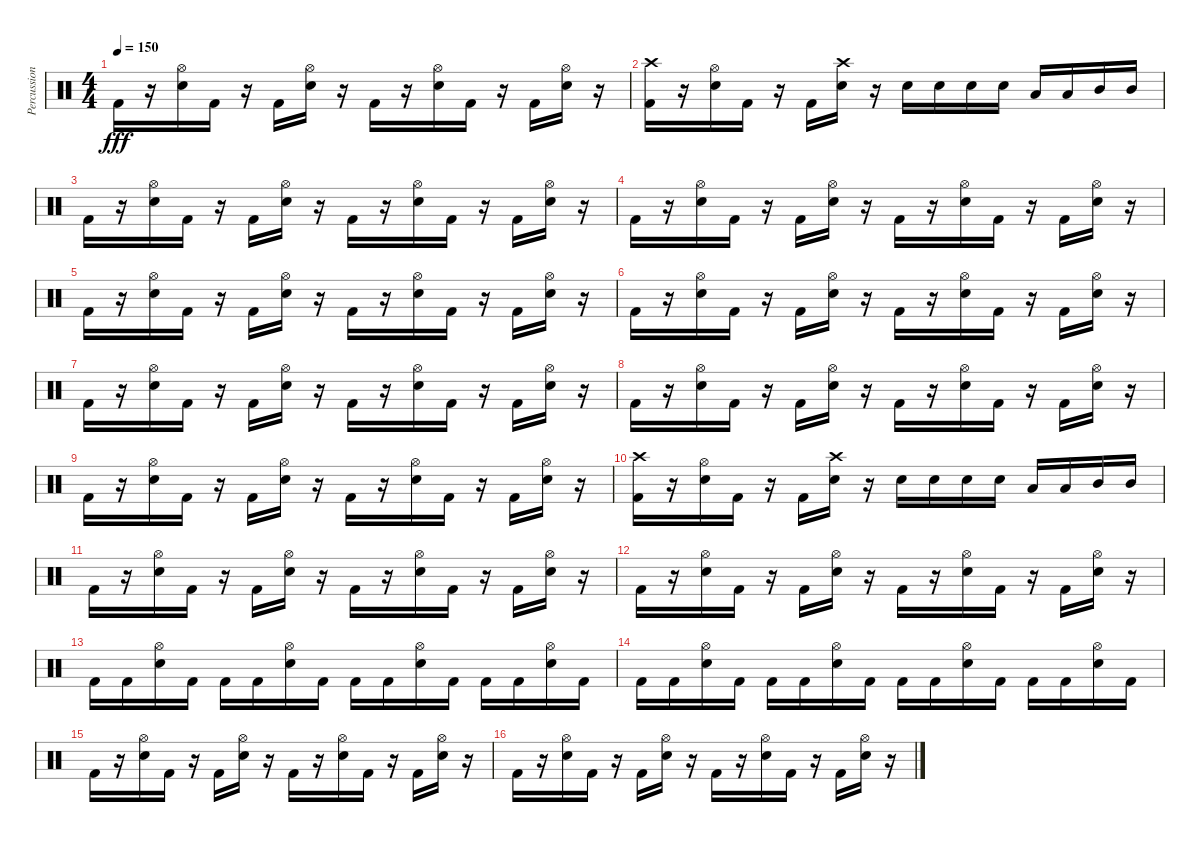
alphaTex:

\track ("Percussion" "Percussion") {instrument percussion}
\staff {score}
\articulation defaults
\ts (4 4)
\tempo 150
\clef neutral
\ks c "Kick (hit) 2".16{dy fff}
r.16 ("Snare (hit) 2" "Hi-Hat (open)").16 "Kick (hit) 2".16 r.16 "Kick (hit) 2".16 ("Snare (hit) 2" "Hi-Hat (open)").16 r.16 "Kick (hit) 2".16 r.16 ("Snare (hit) 2" "Hi-Hat (open)").16 "Kick (hit) 2".16 r.16 "Kick (hit) 2".16 ("Snare (hit) 2" "Hi-Hat (open)").16 r.16 |
("Kick (hit) 2" "Crash high (hit)").16 r.16 ("Snare (hit) 2" "Hi-Hat (open)").16 "Kick (hit) 2".16 r.16 "Kick (hit) 2".16 ("Snare (hit) 2" "Crash high (hit)").16 r.16 "Snare (hit) 2".16 "Snare (hit) 2".16 "Snare (hit) 2".16 "Snare (hit) 2".16 "Low Tom (hit)".16 "Low Tom (hit)".16 "Mid Tom (hit)".16 "Mid Tom (hit)".16 |
"Kick (hit) 2".16 r.16 ("Snare (hit) 2" "Hi-Hat (open)").16 "Kick (hit) 2".16 r.16 "Kick (hit) 2".16 ("Snare (hit) 2" "Hi-Hat (open)").16 r.16 "Kick (hit) 2".16 r.16 ("Snare (hit) 2" "Hi-Hat (open)").16 "Kick (hit) 2".16 r.16 "Kick (hit) 2".16 ("Snare (hit) 2" "Hi-Hat (open)").16 r.16 |
"Kick (hit) 2".16 r.16 ("Snare (hit) 2" "Hi-Hat (open)").16 "Kick (hit) 2".16 r.16 "Kick (hit) 2".16 ("Snare (hit) 2" "Hi-Hat (open)").16 r.16 "Kick (hit) 2".16 r.16 ("Snare (hit) 2" "Hi-Hat (open)").16 "Kick (hit) 2".16 r.16 "Kick (hit) 2".16 ("Snare (hit) 2" "Hi-Hat (open)").16 r.16 |
"Kick (hit) 2".16 r.16 ("Snare (hit) 2" "Hi-Hat (open)").16 "Kick (hit) 2".16 r.16 "Kick (hit) 2".16 ("Snare (hit) 2" "Hi-Hat (open)").16 r.16 "Kick (hit) 2".16 r.16 ("Snare (hit) 2" "Hi-Hat (open)").16 "Kick (hit) 2".16 r.16 "Kick (hit) 2".16 ("Snare (hit) 2" "Hi-Hat (open)").16 r.16 |
"Kick (hit) 2".16 r.16 ("Snare (hit) 2" "Hi-Hat (open)").16 "Kick (hit) 2".16 r.16 "Kick (hit) 2".16 ("Snare (hit) 2" "Hi-Hat (open)").16 r.16 "Kick (hit) 2".16 r.16 ("Snare (hit) 2" "Hi-Hat (open)").16 "Kick (hit) 2".16 r.16 "Kick (hit) 2".16 ("Snare (hit) 2" "Hi-Hat (open)").16 r.16 |
"Kick (hit) 2".16 r.16 ("Snare (hit) 2" "Hi-Hat (open)").16 "Kick (hit) 2".16 r.16 "Kick (hit) 2".16 ("Snare (hit) 2" "Hi-Hat (open)").16 r.16 "Kick (hit) 2".16 r.16 ("Snare (hit) 2" "Hi-Hat (open)").16 "Kick (hit) 2".16 r.16 "Kick (hit) 2".16 ("Snare (hit) 2" "Hi-Hat (open)").16 r.16 |
"Kick (hit) 2".16 r.16 ("Snare (hit) 2" "Hi-Hat (open)").16 "Kick (hit) 2".16 r.16 "Kick (hit) 2".16 ("Snare (hit) 2" "Hi-Hat (open)").16 r.16 "Kick (hit) 2".16 r.16 ("Snare (hit) 2" "Hi-Hat (open)").16 "Kick (hit) 2".16 r.16 "Kick (hit) 2".16 ("Snare (hit) 2" "Hi-Hat (open)").16 r.16 |
"Kick (hit) 2".16 r.16 ("Snare (hit) 2" "Hi-Hat (open)").16 "Kick (hit) 2".16 r.16 "Kick (hit) 2".16 ("Snare (hit) 2" "Hi-Hat (open)").16 r.16 "Kick (hit) 2".16 r.16 ("Snare (hit) 2" "Hi-Hat (open)").16 "Kick (hit) 2".16 r.16 "Kick (hit) 2".16 ("Snare (hit) 2" "Hi-Hat (open)").16 r.16 |
("Kick (hit) 2" "Crash high (hit)").16 r.16 ("Snare (hit) 2" "Hi-Hat (open)").16 "Kick (hit) 2".16 r.16 "Kick (hit) 2".16 ("Snare (hit) 2" "Crash high (hit)").16 r.16 "Snare (hit) 2".16 "Snare (hit) 2".16 "Snare (hit) 2".16 "Snare (hit) 2".16 "Low Tom (hit)".16 "Low Tom (hit)".16 "Mid Tom (hit)".16 "Mid Tom (hit)".16 |
"Kick (hit) 2".16 r.16 ("Snare (hit) 2" "Hi-Hat (open)").16 "Kick (hit) 2".16 r.16 "Kick (hit) 2".16 ("Snare (hit) 2" "Hi-Hat (open)").16 r.16 "Kick (hit) 2".16 r.16 ("Snare (hit) 2" "Hi-Hat (open)").16 "Kick (hit) 2".16 r.16 "Kick (hit) 2".16 ("Snare (hit) 2" "Hi-Hat (open)").16 r.16 |
"Kick (hit) 2".16 r.16 ("Snare (hit) 2" "Hi-Hat (open)").16 "Kick (hit) 2".16 r.16 "Kick (hit) 2".16 ("Snare (hit) 2" "Hi-Hat (open)").16 r.16 "Kick (hit) 2".16 r.16 ("Snare (hit) 2" "Hi-Hat (open)").16 "Kick (hit) 2".16 r.16 "Kick (hit) 2".16 ("Snare (hit) 2" "Hi-Hat (open)").16 r.16 |
"Kick (hit) 2".16 "Kick (hit) 2".16 ("Snare (hit) 2" "Hi-Hat (open)").16 "Kick (hit) 2".16 "Kick (hit) 2".16 "Kick (hit) 2".16 ("Snare (hit) 2" "Hi-Hat (open)").16 "Kick (hit) 2".16 "Kick (hit) 2".16 "Kick (hit) 2".16 ("Snare (hit) 2" "Hi-Hat (open)").16 "Kick (hit) 2".16 "Kick (hit) 2".16 "Kick (hit) 2".16 ("Snare (hit) 2" "Hi-Hat (open)").16 "Kick (hit) 2".16 |
"Kick (hit) 2".16 "Kick (hit) 2".16 ("Snare (hit) 2" "Hi-Hat (open)").16 "Kick (hit) 2".16 "Kick (hit) 2".16 "Kick (hit) 2".16 ("Snare (hit) 2" "Hi-Hat (open)").16 "Kick (hit) 2".16 "Kick (hit) 2".16 "Kick (hit) 2".16 ("Snare (hit) 2" "Hi-Hat (open)").16 "Kick (hit) 2".16 "Kick (hit) 2".16 "Kick (hit) 2".16 ("Snare (hit) 2" "Hi-Hat (open)").16 "Kick (hit) 2".16 |
"Kick (hit) 2".16 r.16 ("Snare (hit) 2" "Hi-Hat (open)").16 "Kick (hit) 2".16 r.16 "Kick (hit) 2".16 ("Snare (hit) 2" "Hi-Hat (open)").16 r.16 "Kick (hit) 2".16 r.16 ("Snare (hit) 2" "Hi-Hat (open)").16 "Kick (hit) 2".16 r.16 "Kick (hit) 2".16 ("Snare (hit) 2" "Hi-Hat (open)").16 r.16 |
"Kick (hit) 2".16 r.16 ("Snare (hit) 2" "Hi-Hat (open)").16 "Kick (hit) 2".16 r.16 "Kick (hit) 2".16 ("Snare (hit) 2" "Hi-Hat (open)").16 r.16 "Kick (hit) 2".16 r.16 ("Snare (hit) 2" "Hi-Hat (open)").16 "Kick (hit) 2".16 r.16 "Kick (hit) 2".16 ("Snare (hit) 2" "Hi-Hat (open)").16 r.16
